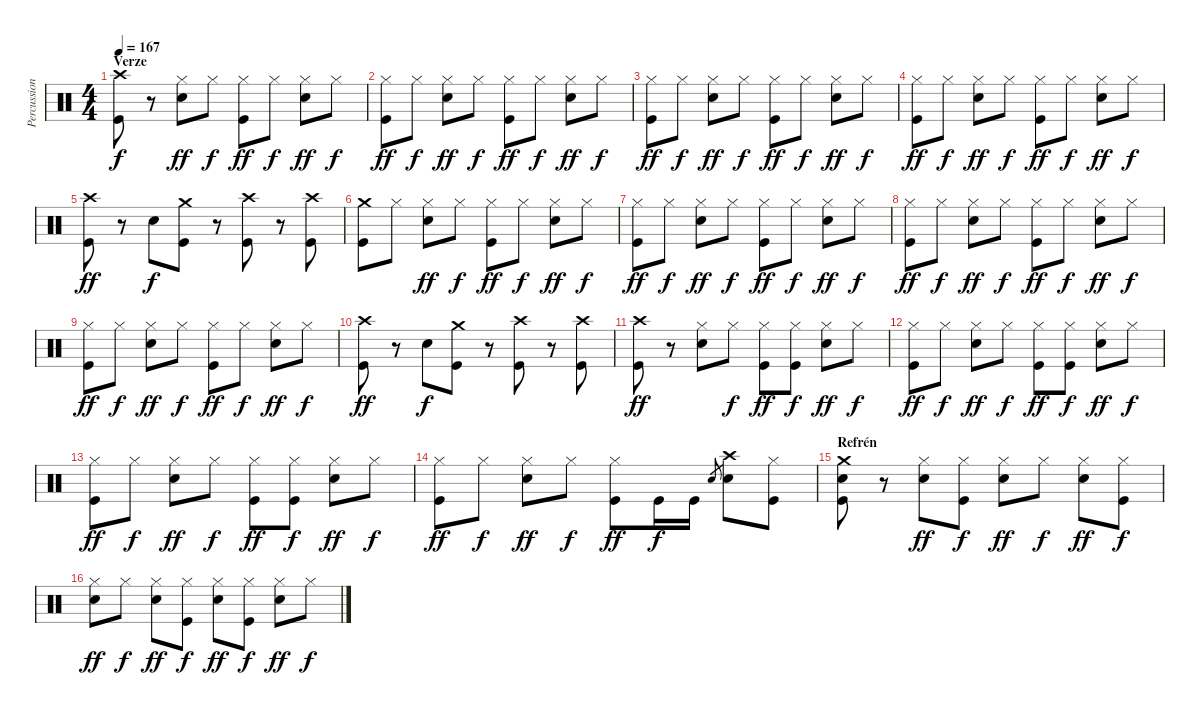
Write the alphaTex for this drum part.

\track ("Percussion" "Percussion") {instrument percussion}
\staff {score}
\articulation defaults
\ts (4 4)
\section ("" "Verze")
\tempo 167
\clef neutral
\ks c
("Kick (hit)" "Crash high (hit)").8{dy f} r.8 ("Hi-Hat (closed)" "Electric Snare (hit)").8{dy ff} "Hi-Hat (closed)".8{dy f} ("Hi-Hat (closed)" "Kick (hit)").8{dy ff} "Hi-Hat (closed)".8{dy f} ("Hi-Hat (closed)" "Electric Snare (hit)").8{dy ff} "Hi-Hat (closed)".8{dy f} |
("Hi-Hat (closed)" "Kick (hit)").8{dy ff} "Hi-Hat (closed)".8{dy f} ("Hi-Hat (closed)" "Electric Snare (hit)").8{dy ff} "Hi-Hat (closed)".8{dy f} ("Hi-Hat (closed)" "Kick (hit)").8{dy ff} "Hi-Hat (closed)".8{dy f} ("Hi-Hat (closed)" "Electric Snare (hit)").8{dy ff} "Hi-Hat (closed)".8{dy f} |
("Hi-Hat (closed)" "Kick (hit)").8{dy ff} "Hi-Hat (closed)".8{dy f} ("Hi-Hat (closed)" "Electric Snare (hit)").8{dy ff} "Hi-Hat (closed)".8{dy f} ("Hi-Hat (closed)" "Kick (hit)").8{dy ff} "Hi-Hat (closed)".8{dy f} ("Hi-Hat (closed)" "Electric Snare (hit)").8{dy ff} "Hi-Hat (closed)".8{dy f} |
("Hi-Hat (closed)" "Kick (hit)").8{dy ff} "Hi-Hat (closed)".8{dy f} ("Hi-Hat (closed)" "Electric Snare (hit)").8{dy ff} "Hi-Hat (closed)".8{dy f} ("Hi-Hat (closed)" "Kick (hit)").8{dy ff} "Hi-Hat (closed)".8{dy f} ("Hi-Hat (closed)" "Electric Snare (hit)").8{dy ff} "Hi-Hat (closed)".8{dy f} |
("Crash high (hit)" "Kick (hit)").8{dy ff} r.8 "Electric Snare (hit)".8{dy f} ("Crash medium (hit)" "Kick (hit)").8 r.8 ("Crash high (hit)" "Kick (hit)").8 r.8 ("Crash high (hit)" "Kick (hit)").8 |
("Kick (hit)" "Crash medium (hit)").8 "Hi-Hat (closed)".8 ("Hi-Hat (closed)" "Electric Snare (hit)").8{dy ff} "Hi-Hat (closed)".8{dy f} ("Hi-Hat (closed)" "Kick (hit)").8{dy ff} "Hi-Hat (closed)".8{dy f} ("Hi-Hat (closed)" "Electric Snare (hit)").8{dy ff} "Hi-Hat (closed)".8{dy f} |
("Hi-Hat (closed)" "Kick (hit)").8{dy ff} "Hi-Hat (closed)".8{dy f} ("Hi-Hat (closed)" "Electric Snare (hit)").8{dy ff} "Hi-Hat (closed)".8{dy f} ("Hi-Hat (closed)" "Kick (hit)").8{dy ff} "Hi-Hat (closed)".8{dy f} ("Hi-Hat (closed)" "Electric Snare (hit)").8{dy ff} "Hi-Hat (closed)".8{dy f} |
("Hi-Hat (closed)" "Kick (hit)").8{dy ff} "Hi-Hat (closed)".8{dy f} ("Hi-Hat (closed)" "Electric Snare (hit)").8{dy ff} "Hi-Hat (closed)".8{dy f} ("Hi-Hat (closed)" "Kick (hit)").8{dy ff} "Hi-Hat (closed)".8{dy f} ("Hi-Hat (closed)" "Electric Snare (hit)").8{dy ff} "Hi-Hat (closed)".8{dy f} |
("Hi-Hat (closed)" "Kick (hit)").8{dy ff} "Hi-Hat (closed)".8{dy f} ("Hi-Hat (closed)" "Electric Snare (hit)").8{dy ff} "Hi-Hat (closed)".8{dy f} ("Hi-Hat (closed)" "Kick (hit)").8{dy ff} "Hi-Hat (closed)".8{dy f} ("Hi-Hat (closed)" "Electric Snare (hit)").8{dy ff} "Hi-Hat (closed)".8{dy f} |
("Crash high (hit)" "Kick (hit)").8{dy ff} r.8 "Electric Snare (hit)".8{dy f} ("Crash medium (hit)" "Kick (hit)").8 r.8 ("Crash high (hit)" "Kick (hit)").8 r.8 ("Crash high (hit)" "Kick (hit)").8 |
("Crash high (hit)" "Kick (hit)").8{dy ff} r.8 ("Hi-Hat (closed)" "Electric Snare (hit)").8 "Hi-Hat (closed)".8{dy f} ("Hi-Hat (closed)" "Kick (hit)").8{dy ff} ("Hi-Hat (closed)" "Kick (hit)").8{dy f} ("Hi-Hat (closed)" "Electric Snare (hit)").8{dy ff} "Hi-Hat (closed)".8{dy f} |
("Hi-Hat (closed)" "Kick (hit)").8{dy ff} "Hi-Hat (closed)".8{dy f} ("Hi-Hat (closed)" "Electric Snare (hit)").8{dy ff} "Hi-Hat (closed)".8{dy f} ("Hi-Hat (closed)" "Kick (hit)").8{dy ff} ("Hi-Hat (closed)" "Kick (hit)").8{dy f} ("Hi-Hat (closed)" "Electric Snare (hit)").8{dy ff} "Hi-Hat (closed)".8{dy f} |
("Hi-Hat (closed)" "Kick (hit)").8{dy ff} "Hi-Hat (closed)".8{dy f} ("Hi-Hat (closed)" "Electric Snare (hit)").8{dy ff} "Hi-Hat (closed)".8{dy f} ("Hi-Hat (closed)" "Kick (hit)").8{dy ff} ("Hi-Hat (closed)" "Kick (hit)").8{dy f} ("Hi-Hat (closed)" "Electric Snare (hit)").8{dy ff} "Hi-Hat (closed)".8{dy f} |
("Hi-Hat (closed)" "Kick (hit)").8{dy ff} "Hi-Hat (closed)".8{dy f} ("Hi-Hat (closed)" "Electric Snare (hit)").8{dy ff} "Hi-Hat (closed)".8{dy f} ("Hi-Hat (closed)" "Kick (hit)").8{dy ff} "Kick (hit)".16{dy f} "Kick (hit)".16 "Electric Snare (hit)".8{gr} ("Crash high (hit)" "Electric Snare (hit)").8 ("Hi-Hat (closed)" "Kick (hit)").8 |
\section ("" "Refrén")
("Crash medium (hit)" "Kick (hit)" "Electric Snare (hit)").8 r.8 ("Hi-Hat (closed)" "Electric Snare (hit)").8{dy ff} ("Hi-Hat (closed)" "Kick (hit)").8{dy f} ("Hi-Hat (closed)" "Electric Snare (hit)").8{dy ff} "Hi-Hat (closed)".8{dy f} ("Hi-Hat (closed)" "Electric Snare (hit)").8{dy ff} ("Hi-Hat (closed)" "Kick (hit)").8{dy f} |
("Hi-Hat (closed)" "Electric Snare (hit)").8{dy ff} "Hi-Hat (closed)".8{dy f} ("Hi-Hat (closed)" "Electric Snare (hit)").8{dy ff} ("Hi-Hat (closed)" "Kick (hit)").8{dy f} ("Hi-Hat (closed)" "Electric Snare (hit)").8{dy ff} ("Hi-Hat (closed)" "Kick (hit)").8{dy f} ("Hi-Hat (closed)" "Electric Snare (hit)").8{dy ff} "Hi-Hat (closed)".8{dy f}
